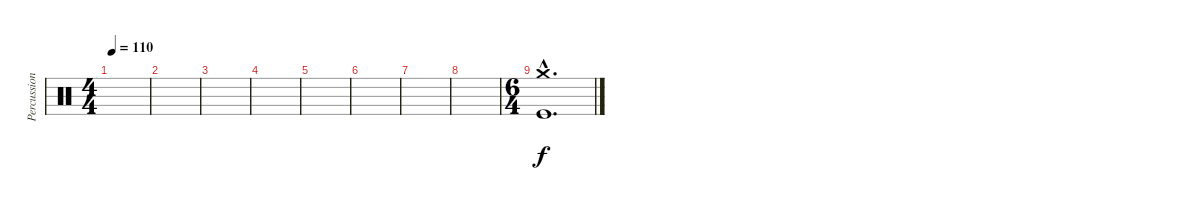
\track ("Percussion" "Percussion") {instrument percussion}
\staff {score}
\articulation defaults
\ts (4 4)
\tempo 110
\clef neutral
\ks c
|
|
|
|
|
|
|
|
\ts (6 4)
("Crash medium (hit)"{hac} "Kick (hit)"{hac}).1{d}
